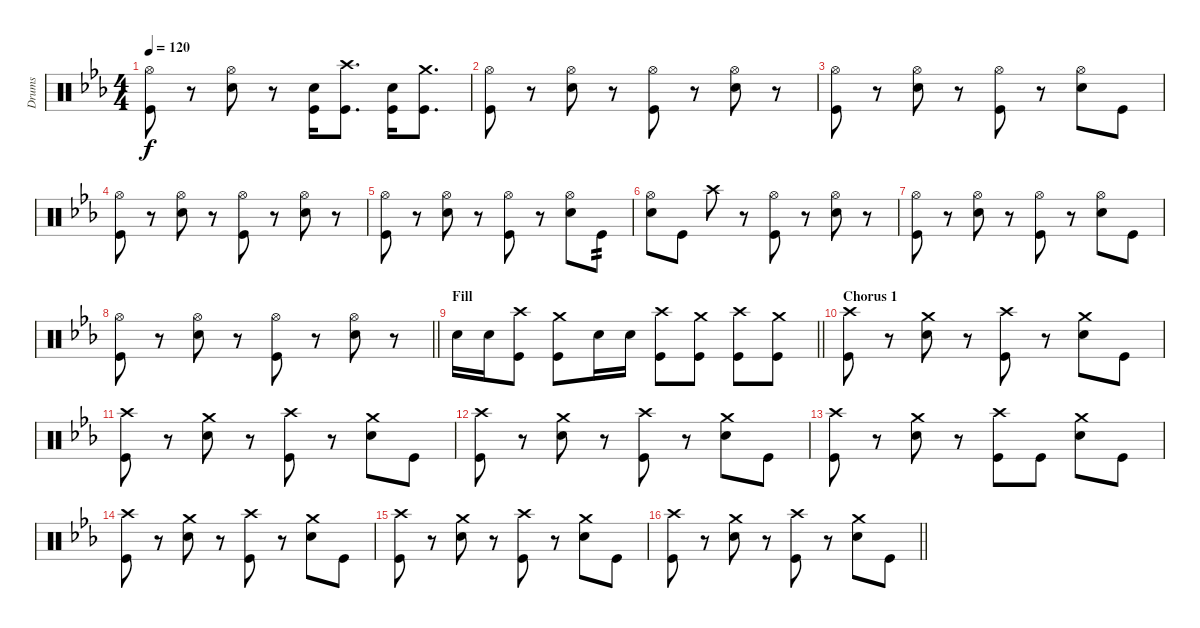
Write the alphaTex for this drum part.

\track ("Drums" "Drums") {instrument percussion}
\staff {score}
\articulation defaults
\ts (4 4)
\tempo 120
\clef neutral
\ks cminor
("Hi-Hat (open)" "Kick (hit)").8{dy f} r.8 ("Hi-Hat (open)" "Snare (hit) 2").8 r.8 ("Snare (hit) 2" "Kick (hit)").16 ("Crash high (hit)" "Kick (hit)").8{d} ("Snare (hit) 2" "Kick (hit)").16 ("Crash medium (hit)" "Kick (hit)").8{d} |
("Hi-Hat (open)" "Kick (hit)").8 r.8 ("Hi-Hat (open)" "Snare (hit) 2").8 r.8 ("Hi-Hat (open)" "Kick (hit)").8 r.8 ("Hi-Hat (open)" "Snare (hit) 2").8 r.8 |
("Hi-Hat (open)" "Kick (hit)").8 r.8 ("Hi-Hat (open)" "Snare (hit) 2").8 r.8 ("Hi-Hat (open)" "Kick (hit)").8 r.8 ("Hi-Hat (open)" "Snare (hit) 2").8 "Kick (hit)".8 |
("Hi-Hat (open)" "Kick (hit)").8 r.8 ("Hi-Hat (open)" "Snare (hit) 2").8 r.8 ("Hi-Hat (open)" "Kick (hit)").8 r.8 ("Hi-Hat (open)" "Snare (hit) 2").8 r.8 |
("Hi-Hat (open)" "Kick (hit)").8 r.8 ("Hi-Hat (open)" "Snare (hit) 2").8 r.8 ("Hi-Hat (open)" "Kick (hit)").8 r.8 ("Hi-Hat (open)" "Snare (hit) 2").8 "Kick (hit)".8{tp 2} |
("Hi-Hat (open)" "Snare (hit) 2").8 "Kick (hit)".8 "Crash high (hit)".8 r.8 ("Hi-Hat (open)" "Kick (hit)").8 r.8 ("Hi-Hat (open)" "Snare (hit) 2").8 r.8 |
("Hi-Hat (open)" "Kick (hit)").8 r.8 ("Hi-Hat (open)" "Snare (hit) 2").8 r.8 ("Hi-Hat (open)" "Kick (hit)").8 r.8 ("Hi-Hat (open)" "Snare (hit) 2").8 "Kick (hit)".8 |
\barLineRight lightlight
("Hi-Hat (open)" "Kick (hit)").8 r.8 ("Hi-Hat (open)" "Snare (hit) 2").8 r.8 ("Hi-Hat (open)" "Kick (hit)").8 r.8 ("Hi-Hat (open)" "Snare (hit) 2").8 r.8 |
\section ("" "Fill")
\barLineRight lightlight "Snare (hit) 2".16 "Snare (hit) 2".16
("Kick (hit)" "Crash high (hit)").8 ("Kick (hit)" "Crash medium (hit)").8 "Snare (hit) 2".16 "Snare (hit) 2".16 ("Kick (hit)" "Crash high (hit)").8 ("Kick (hit)" "Crash medium (hit)").8 ("Kick (hit)" "Crash high (hit)").8 ("Kick (hit)" "Crash medium (hit)").8 |
\section ("" "Chorus 1")
("Crash high (hit)" "Kick (hit)").8 r.8 ("Crash medium (hit)" "Snare (hit) 2").8 r.8 ("Crash high (hit)" "Kick (hit)").8 r.8 ("Crash medium (hit)" "Snare (hit) 2").8 "Kick (hit)".8 |
("Crash high (hit)" "Kick (hit)").8 r.8 ("Crash medium (hit)" "Snare (hit) 2").8 r.8 ("Crash high (hit)" "Kick (hit)").8 r.8 ("Crash medium (hit)" "Snare (hit) 2").8 "Kick (hit)".8 |
("Crash high (hit)" "Kick (hit)").8 r.8 ("Crash medium (hit)" "Snare (hit) 2").8 r.8 ("Crash high (hit)" "Kick (hit)").8 r.8 ("Crash medium (hit)" "Snare (hit) 2").8 "Kick (hit)".8 |
("Crash high (hit)" "Kick (hit)").8 r.8 ("Crash medium (hit)" "Snare (hit) 2").8 r.8 ("Crash high (hit)" "Kick (hit)").8 "Kick (hit)".8 ("Crash medium (hit)" "Snare (hit) 2").8 "Kick (hit)".8 |
("Crash high (hit)" "Kick (hit)").8 r.8 ("Crash medium (hit)" "Snare (hit) 2").8 r.8 ("Crash high (hit)" "Kick (hit)").8 r.8 ("Crash medium (hit)" "Snare (hit) 2").8 "Kick (hit)".8 |
("Crash high (hit)" "Kick (hit)").8 r.8 ("Crash medium (hit)" "Snare (hit) 2").8 r.8 ("Crash high (hit)" "Kick (hit)").8 r.8 ("Crash medium (hit)" "Snare (hit) 2").8 "Kick (hit)".8 |
\barLineRight lightlight
("Crash high (hit)" "Kick (hit)").8 r.8 ("Crash medium (hit)" "Snare (hit) 2").8 r.8 ("Crash high (hit)" "Kick (hit)").8 r.8 ("Crash medium (hit)" "Snare (hit) 2").8 "Kick (hit)".8
